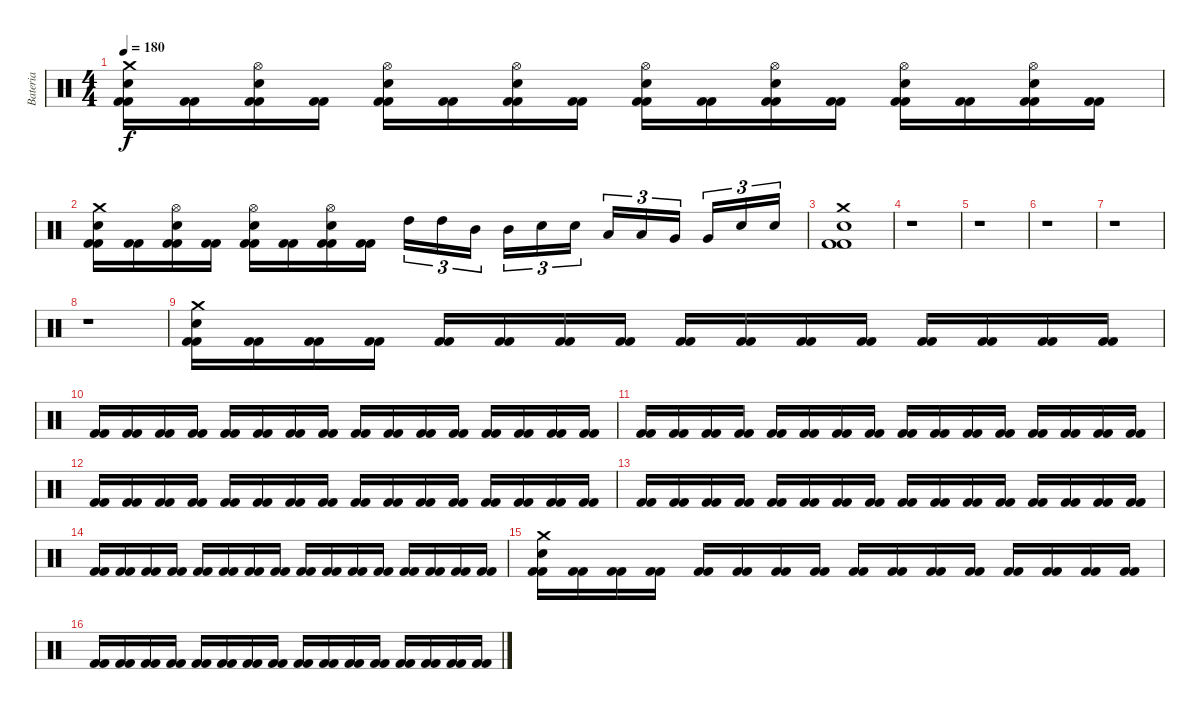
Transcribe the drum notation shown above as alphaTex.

\track ("Bateria" "Bateria") {instrument percussion}
\staff {score}
\articulation defaults
\ts (4 4)
\tempo 180
\clef neutral
\ks c
("Kick (hit) 2" "Kick (hit) 2" "Snare (hit) 2" "Crash medium (hit)").16{dy f} ("Kick (hit) 2" "Kick (hit) 2").16 ("Kick (hit) 2" "Kick (hit) 2" "Snare (hit) 2" "Hi-Hat (open)").16 ("Kick (hit) 2" "Kick (hit) 2").16 ("Kick (hit) 2" "Kick (hit) 2" "Snare (hit) 2" "Hi-Hat (open)").16 ("Kick (hit) 2" "Kick (hit) 2").16 ("Kick (hit) 2" "Kick (hit) 2" "Snare (hit) 2" "Hi-Hat (open)").16 ("Kick (hit) 2" "Kick (hit) 2").16 ("Kick (hit) 2" "Kick (hit) 2" "Snare (hit) 2" "Hi-Hat (open)").16 ("Kick (hit) 2" "Kick (hit) 2").16 ("Kick (hit) 2" "Kick (hit) 2" "Snare (hit) 2" "Hi-Hat (open)").16 ("Kick (hit) 2" "Kick (hit) 2").16 ("Kick (hit) 2" "Kick (hit) 2" "Snare (hit) 2" "Hi-Hat (open)").16 ("Kick (hit) 2" "Kick (hit) 2").16 ("Kick (hit) 2" "Kick (hit) 2" "Snare (hit) 2" "Hi-Hat (open)").16 ("Kick (hit) 2" "Kick (hit) 2").16 |
("Kick (hit) 2" "Kick (hit) 2" "Snare (hit) 2" "Crash medium (hit)").16 ("Kick (hit) 2" "Kick (hit) 2").16 ("Kick (hit) 2" "Kick (hit) 2" "Snare (hit) 2" "Hi-Hat (open)").16 ("Kick (hit) 2" "Kick (hit) 2").16 ("Kick (hit) 2" "Kick (hit) 2" "Snare (hit) 2" "Hi-Hat (open)").16 ("Kick (hit) 2" "Kick (hit) 2").16 ("Kick (hit) 2" "Kick (hit) 2" "Snare (hit) 2" "Hi-Hat (open)").16 ("Kick (hit) 2" "Kick (hit) 2").16 "High Tom (hit)".16{tu (3 2)} "High Tom (hit)".16{tu (3 2)} "Mid Tom (hit)".16{tu (3 2)} "Mid Tom (hit)".16{tu (3 2)} "Electric Snare (hit)".16{tu (3 2)} "Electric Snare (hit)".16{tu (3 2)} "Low Tom (hit)".16{tu (3 2)} "Low Tom (hit)".16{tu (3 2)} "Very Low Tom (hit)".16{tu (3 2)} "Very Low Tom (hit)".16{tu (3 2)} "Electric Snare (hit)".16{tu (3 2)} "Electric Snare (hit)".16{tu (3 2)} |
("Kick (hit) 2" "Kick (hit) 2" "Snare (hit) 2" "Crash medium (hit)").1 |
r.1 |
r.1 |
r.1 |
r.1 |
r.1 |
("Kick (hit) 2" "Kick (hit) 2" "Snare (hit) 2" "Crash medium (hit)").16 ("Kick (hit) 2" "Kick (hit) 2").16 ("Kick (hit) 2" "Kick (hit) 2").16 ("Kick (hit) 2" "Kick (hit) 2").16 ("Kick (hit) 2" "Kick (hit) 2").16 ("Kick (hit) 2" "Kick (hit) 2").16 ("Kick (hit) 2" "Kick (hit) 2").16 ("Kick (hit) 2" "Kick (hit) 2").16 ("Kick (hit) 2" "Kick (hit) 2").16 ("Kick (hit) 2" "Kick (hit) 2").16 ("Kick (hit) 2" "Kick (hit) 2").16 ("Kick (hit) 2" "Kick (hit) 2").16 ("Kick (hit) 2" "Kick (hit) 2").16 ("Kick (hit) 2" "Kick (hit) 2").16 ("Kick (hit) 2" "Kick (hit) 2").16 ("Kick (hit) 2" "Kick (hit) 2").16 |
("Kick (hit) 2" "Kick (hit) 2").16 ("Kick (hit) 2" "Kick (hit) 2").16 ("Kick (hit) 2" "Kick (hit) 2").16 ("Kick (hit) 2" "Kick (hit) 2").16 ("Kick (hit) 2" "Kick (hit) 2").16 ("Kick (hit) 2" "Kick (hit) 2").16 ("Kick (hit) 2" "Kick (hit) 2").16 ("Kick (hit) 2" "Kick (hit) 2").16 ("Kick (hit) 2" "Kick (hit) 2").16 ("Kick (hit) 2" "Kick (hit) 2").16 ("Kick (hit) 2" "Kick (hit) 2").16 ("Kick (hit) 2" "Kick (hit) 2").16 ("Kick (hit) 2" "Kick (hit) 2").16 ("Kick (hit) 2" "Kick (hit) 2").16 ("Kick (hit) 2" "Kick (hit) 2").16 ("Kick (hit) 2" "Kick (hit) 2").16 |
("Kick (hit) 2" "Kick (hit) 2").16 ("Kick (hit) 2" "Kick (hit) 2").16 ("Kick (hit) 2" "Kick (hit) 2").16 ("Kick (hit) 2" "Kick (hit) 2").16 ("Kick (hit) 2" "Kick (hit) 2").16 ("Kick (hit) 2" "Kick (hit) 2").16 ("Kick (hit) 2" "Kick (hit) 2").16 ("Kick (hit) 2" "Kick (hit) 2").16 ("Kick (hit) 2" "Kick (hit) 2").16 ("Kick (hit) 2" "Kick (hit) 2").16 ("Kick (hit) 2" "Kick (hit) 2").16 ("Kick (hit) 2" "Kick (hit) 2").16 ("Kick (hit) 2" "Kick (hit) 2").16 ("Kick (hit) 2" "Kick (hit) 2").16 ("Kick (hit) 2" "Kick (hit) 2").16 ("Kick (hit) 2" "Kick (hit) 2").16 |
("Kick (hit) 2" "Kick (hit) 2").16 ("Kick (hit) 2" "Kick (hit) 2").16 ("Kick (hit) 2" "Kick (hit) 2").16 ("Kick (hit) 2" "Kick (hit) 2").16 ("Kick (hit) 2" "Kick (hit) 2").16 ("Kick (hit) 2" "Kick (hit) 2").16 ("Kick (hit) 2" "Kick (hit) 2").16 ("Kick (hit) 2" "Kick (hit) 2").16 ("Kick (hit) 2" "Kick (hit) 2").16 ("Kick (hit) 2" "Kick (hit) 2").16 ("Kick (hit) 2" "Kick (hit) 2").16 ("Kick (hit) 2" "Kick (hit) 2").16 ("Kick (hit) 2" "Kick (hit) 2").16 ("Kick (hit) 2" "Kick (hit) 2").16 ("Kick (hit) 2" "Kick (hit) 2").16 ("Kick (hit) 2" "Kick (hit) 2").16 |
("Kick (hit) 2" "Kick (hit) 2").16 ("Kick (hit) 2" "Kick (hit) 2").16 ("Kick (hit) 2" "Kick (hit) 2").16 ("Kick (hit) 2" "Kick (hit) 2").16 ("Kick (hit) 2" "Kick (hit) 2").16 ("Kick (hit) 2" "Kick (hit) 2").16 ("Kick (hit) 2" "Kick (hit) 2").16 ("Kick (hit) 2" "Kick (hit) 2").16 ("Kick (hit) 2" "Kick (hit) 2").16 ("Kick (hit) 2" "Kick (hit) 2").16 ("Kick (hit) 2" "Kick (hit) 2").16 ("Kick (hit) 2" "Kick (hit) 2").16 ("Kick (hit) 2" "Kick (hit) 2").16 ("Kick (hit) 2" "Kick (hit) 2").16 ("Kick (hit) 2" "Kick (hit) 2").16 ("Kick (hit) 2" "Kick (hit) 2").16 |
("Kick (hit) 2" "Kick (hit) 2").16 ("Kick (hit) 2" "Kick (hit) 2").16 ("Kick (hit) 2" "Kick (hit) 2").16 ("Kick (hit) 2" "Kick (hit) 2").16 ("Kick (hit) 2" "Kick (hit) 2").16 ("Kick (hit) 2" "Kick (hit) 2").16 ("Kick (hit) 2" "Kick (hit) 2").16 ("Kick (hit) 2" "Kick (hit) 2").16 ("Kick (hit) 2" "Kick (hit) 2").16 ("Kick (hit) 2" "Kick (hit) 2").16 ("Kick (hit) 2" "Kick (hit) 2").16 ("Kick (hit) 2" "Kick (hit) 2").16 ("Kick (hit) 2" "Kick (hit) 2").16 ("Kick (hit) 2" "Kick (hit) 2").16 ("Kick (hit) 2" "Kick (hit) 2").16 ("Kick (hit) 2" "Kick (hit) 2").16 |
("Kick (hit) 2" "Kick (hit) 2" "Snare (hit) 2" "Crash medium (hit)").16 ("Kick (hit) 2" "Kick (hit) 2").16 ("Kick (hit) 2" "Kick (hit) 2").16 ("Kick (hit) 2" "Kick (hit) 2").16 ("Kick (hit) 2" "Kick (hit) 2").16 ("Kick (hit) 2" "Kick (hit) 2").16 ("Kick (hit) 2" "Kick (hit) 2").16 ("Kick (hit) 2" "Kick (hit) 2").16 ("Kick (hit) 2" "Kick (hit) 2").16 ("Kick (hit) 2" "Kick (hit) 2").16 ("Kick (hit) 2" "Kick (hit) 2").16 ("Kick (hit) 2" "Kick (hit) 2").16 ("Kick (hit) 2" "Kick (hit) 2").16 ("Kick (hit) 2" "Kick (hit) 2").16 ("Kick (hit) 2" "Kick (hit) 2").16 ("Kick (hit) 2" "Kick (hit) 2").16 |
("Kick (hit) 2" "Kick (hit) 2").16 ("Kick (hit) 2" "Kick (hit) 2").16 ("Kick (hit) 2" "Kick (hit) 2").16 ("Kick (hit) 2" "Kick (hit) 2").16 ("Kick (hit) 2" "Kick (hit) 2").16 ("Kick (hit) 2" "Kick (hit) 2").16 ("Kick (hit) 2" "Kick (hit) 2").16 ("Kick (hit) 2" "Kick (hit) 2").16 ("Kick (hit) 2" "Kick (hit) 2").16 ("Kick (hit) 2" "Kick (hit) 2").16 ("Kick (hit) 2" "Kick (hit) 2").16 ("Kick (hit) 2" "Kick (hit) 2").16 ("Kick (hit) 2" "Kick (hit) 2").16 ("Kick (hit) 2" "Kick (hit) 2").16 ("Kick (hit) 2" "Kick (hit) 2").16 ("Kick (hit) 2" "Kick (hit) 2").16
